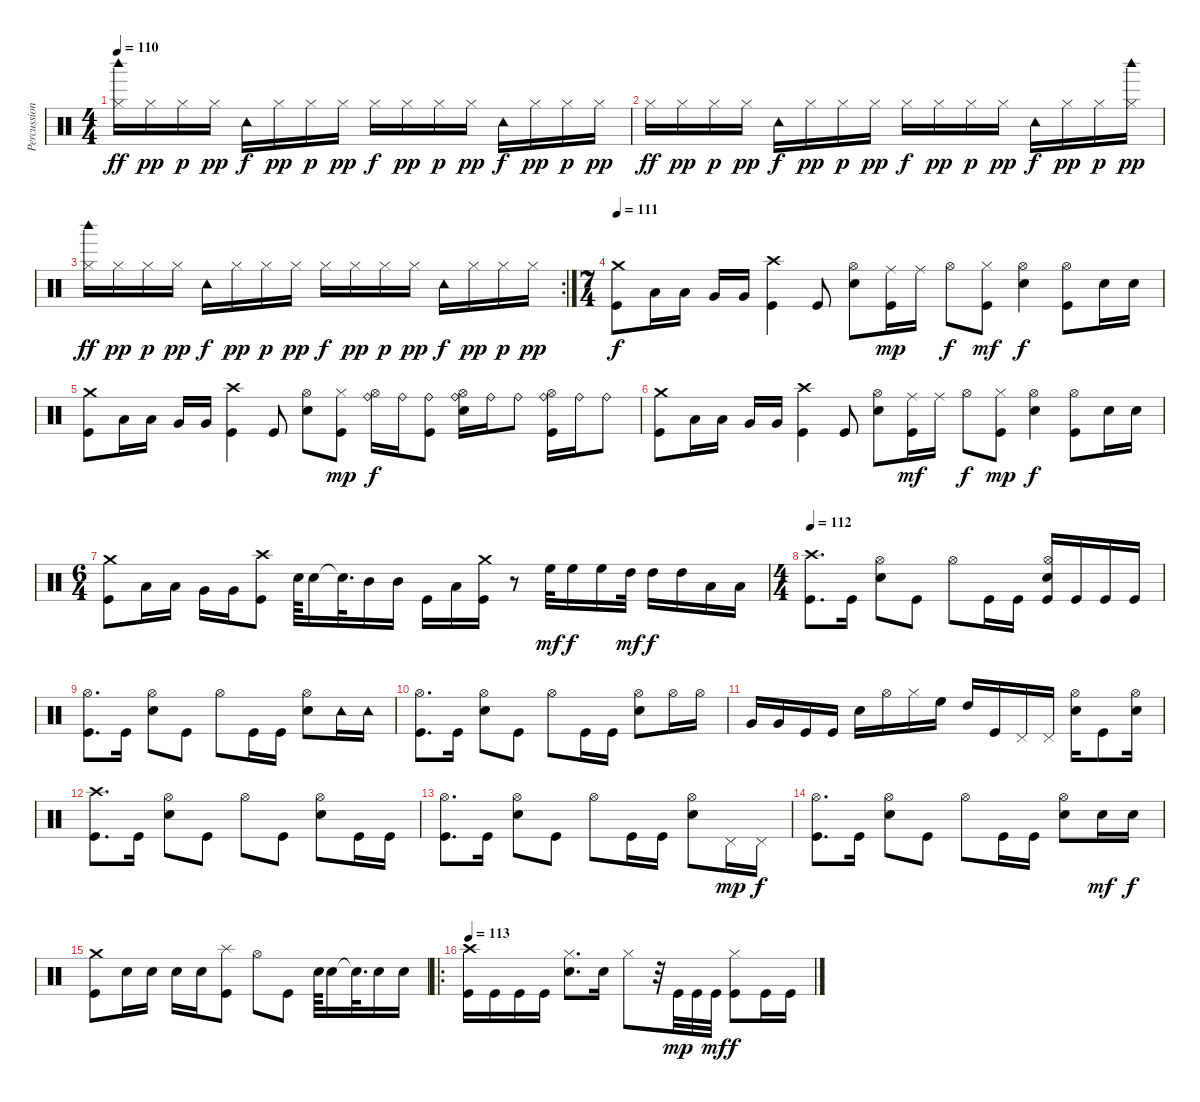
\track ("Percussioni" "Percussion") {instrument percussion}
\staff {score}
\articulation defaults
\ts (4 4)
\tempo 110
\clef neutral
\ks c
("Woodblock high (hit)" "Hi-Hat (closed)").16{dy ff} "Hi-Hat (closed)".16{dy pp} "Hi-Hat (closed)".16{dy p} "Hi-Hat (closed)".16{dy pp} "Tambourine (hit)".16{dy f} "Hi-Hat (closed)".16{dy pp} "Hi-Hat (closed)".16{dy p} "Hi-Hat (closed)".16{dy pp} "Hi-Hat (closed)".16{dy f} "Hi-Hat (closed)".16{dy pp} "Hi-Hat (closed)".16{dy p} "Hi-Hat (closed)".16{dy pp} "Tambourine (hit)".16{dy f} "Hi-Hat (closed)".16{dy pp} "Hi-Hat (closed)".16{dy p} "Hi-Hat (closed)".16{dy pp} |
"Hi-Hat (closed)".16{dy ff} "Hi-Hat (closed)".16{dy pp} "Hi-Hat (closed)".16{dy p} "Hi-Hat (closed)".16{dy pp} "Tambourine (hit)".16{dy f} "Hi-Hat (closed)".16{dy pp} "Hi-Hat (closed)".16{dy p} "Hi-Hat (closed)".16{dy pp} "Hi-Hat (closed)".16{dy f} "Hi-Hat (closed)".16{dy pp} "Hi-Hat (closed)".16{dy p} "Hi-Hat (closed)".16{dy pp} "Tambourine (hit)".16{dy f} "Hi-Hat (closed)".16{dy pp} "Hi-Hat (closed)".16{dy p} ("Woodblock high (hit)" "Hi-Hat (closed)").16{dy pp} |
\rc 2
("Woodblock high (hit)" "Hi-Hat (closed)").16{dy ff} "Hi-Hat (closed)".16{dy pp} "Hi-Hat (closed)".16{dy p} "Hi-Hat (closed)".16{dy pp} "Tambourine (hit)".16{dy f} "Hi-Hat (closed)".16{dy pp} "Hi-Hat (closed)".16{dy p} "Hi-Hat (closed)".16{dy pp} "Hi-Hat (closed)".16{dy f} "Hi-Hat (closed)".16{dy pp} "Hi-Hat (closed)".16{dy p} "Hi-Hat (closed)".16{dy pp} "Tambourine (hit)".16{dy f} "Hi-Hat (closed)".16{dy pp} "Hi-Hat (closed)".16{dy p} "Hi-Hat (closed)".16{dy pp} |
\ts (7 4)
\tempo 111
("Crash medium (hit)" "Kick (hit)").8{dy f} "Low Tom (hit)".16 "Low Tom (hit)".16 "Very Low Tom (hit)".16 "Very Low Tom (hit)".16 ("Crash high (hit)" "Kick (hit)").4 "Kick (hit)".8 ("Hi-Hat (open)" "Snare (hit) 2").8 ("Ride (middle)" "Kick (hit)").16{dy mp} "Ride (middle)".16 "Hi-Hat (open)".8{dy f} ("Hi-Hat (closed)" "Kick (hit)").8{dy mf} ("Hi-Hat (open)" "Snare (hit) 2").4{dy f} ("Hi-Hat (open)" "Kick (hit)").8 "Snare (hit) 2".16 "Snare (hit) 2".16 |
("Crash medium (hit)" "Kick (hit)").8 "Low Tom (hit)".16 "Low Tom (hit)".16 "Very Low Tom (hit)".16 "Very Low Tom (hit)".16 ("Crash high (hit)" "Kick (hit)").4 "Kick (hit)".8 ("Hi-Hat (open)" "Snare (hit) 2").8 ("Hi-Hat (closed)" "Kick (hit)").8{dy mp} ("Hi-Hat (open)" "Ride (bell)").16{dy f} "Ride (bell)".16 ("Ride (bell)" "Kick (hit)").8 ("Hi-Hat (open)" "Ride (bell)" "Snare (hit) 2").16 "Ride (bell)".16 "Ride (bell)".8 ("Hi-Hat (open)" "Ride (bell)" "Kick (hit)").16 "Ride (bell)".16 "Ride (bell)".8 |
("Crash medium (hit)" "Kick (hit)").8 "Low Tom (hit)".16 "Low Tom (hit)".16 "Very Low Tom (hit)".16 "Very Low Tom (hit)".16 ("Crash high (hit)" "Kick (hit)").4 "Kick (hit)".8 ("Hi-Hat (open)" "Snare (hit) 2").8 ("Ride (middle)" "Kick (hit)").16{dy mf} "Ride (middle)".16 "Hi-Hat (open)".8{dy f} ("Hi-Hat (closed)" "Kick (hit)").8{dy mp} ("Hi-Hat (open)" "Snare (hit) 2").4{dy f} ("Hi-Hat (open)" "Kick (hit)").8 "Snare (hit) 2".16 "Snare (hit) 2".16 |
\ts (6 4)
("Crash medium (hit)" "Kick (hit)").8 "Low Tom (hit)".16 "Low Tom (hit)".16 "Very Low Tom (hit)".16 "Very Low Tom (hit)".16 ("Crash high (hit)" "Kick (hit)").8 "Snare (hit) 2".64 "Snare (hit) 2".16 "Snare (hit)"{t}.32{d} "Mid Tom (hit)".16 "Mid Tom (hit)".16 "Kick (hit)".16 "Low Tom (hit)".16 ("Crash medium (hit)" "Kick (hit)").16 r.8 "High Floor Tom (hit)".32{dy mf} "High Floor Tom (hit)".16{dy f} "High Floor Tom (hit)".16 "High Tom (hit)".32{dy mf} "High Tom (hit)".16{dy f} "High Tom (hit)".16 "Low Tom (hit)".16 "Low Tom (hit)".16 |
\ts (4 4)
\tempo 112
("Crash high (hit)" "Kick (hit)").8{d} "Kick (hit)".16 ("Hi-Hat (open)" "Snare (hit) 2").8 "Kick (hit)".8 "Hi-Hat (open)".8 "Kick (hit)".16 "Kick (hit)".16 ("Hi-Hat (open)" "Snare (hit) 2" "Kick (hit)").16 "Kick (hit)".16 "Kick (hit)".16 "Kick (hit)".16 |
("Hi-Hat (open)" "Kick (hit)").8{d} "Kick (hit)".16 ("Hi-Hat (open)" "Snare (hit) 2").8 "Kick (hit)".8 "Hi-Hat (open)".8 "Kick (hit)".16 "Kick (hit)".16 ("Hi-Hat (open)" "Snare (hit) 2").8 "Tambourine (hit)".16 "Tambourine (hit)".16 |
("Hi-Hat (open)" "Kick (hit)").8{d} "Kick (hit)".16 ("Hi-Hat (open)" "Snare (hit) 2").8 "Kick (hit)".8 "Hi-Hat (open)".8 "Kick (hit)".16 "Kick (hit)".16 ("Hi-Hat (open)" "Snare (hit) 2").8 "Hi-Hat (open)".16 "Hi-Hat (open)".16 |
"Very Low Tom (hit)".16 "Very Low Tom (hit)".16 "Kick (hit)".16 "Kick (hit)".16 "Snare (hit) 2".16 "Hi-Hat (open)".16 "Hi-Hat (closed)".16 "High Floor Tom (hit)".16 "High Tom (hit)".16 "Kick (hit)".16 "Pedal Hi-Hat (hit)".16 "Pedal Hi-Hat (hit)".16 ("Hi-Hat (open)" "Snare (hit) 2").16 "Kick (hit)".8 ("Hi-Hat (open)" "Snare (hit) 2").16 |
("Crash high (hit)" "Kick (hit)").8{d} "Kick (hit)".16 ("Hi-Hat (open)" "Snare (hit) 2").8 "Kick (hit)".8 "Hi-Hat (open)".8 "Kick (hit)".8 ("Hi-Hat (open)" "Snare (hit) 2").8 "Kick (hit)".16 "Kick (hit)".16 |
("Hi-Hat (open)" "Kick (hit)").8{d} "Kick (hit)".16 ("Hi-Hat (open)" "Snare (hit) 2").8 "Kick (hit)".8 "Hi-Hat (open)".8 "Kick (hit)".16 "Kick (hit)".16 ("Hi-Hat (open)" "Snare (hit) 2").8 "Pedal Hi-Hat (hit)".16{dy mp} "Pedal Hi-Hat (hit)".16{dy f} |
("Hi-Hat (open)" "Kick (hit)").8{d} "Kick (hit)".16 ("Hi-Hat (open)" "Snare (hit) 2").8 "Kick (hit)".8 "Hi-Hat (open)".8 "Kick (hit)".16 "Kick (hit)".16 ("Hi-Hat (open)" "Snare (hit) 2").8 "Snare (hit) 2".16{dy mf} "Snare (hit) 2".16{dy f} |
("Crash medium (hit)" "Kick (hit)").8 "Snare (hit) 2".16 "Snare (hit) 2".16 "Snare (hit) 2".16 "Snare (hit) 2".16 ("Splash (hit)" "Kick (hit)").8 "Hi-Hat (open)".8 "Kick (hit)".8 "Snare (hit) 2".64 "Snare (hit) 2".16 "Snare (hit)"{t}.32{d} "Snare (hit) 2".16 "Snare (hit) 2".16 |
\ro
\tempo 113
("Crash high (hit)" "Kick (hit)").16 "Kick (hit)".16 "Kick (hit)".16 "Kick (hit)".16 ("Hi-Hat (closed)" "Snare (hit) 2").8{d} "Snare (hit) 2".16 "Hi-Hat (closed)".8 r.32 "Kick (hit)".32{dy mp} "Kick (hit)".32 "Kick (hit)".32{dy mf} ("Hi-Hat (closed)" "Kick (hit)").8{dy f} "Kick (hit)".16 "Kick (hit)".16
